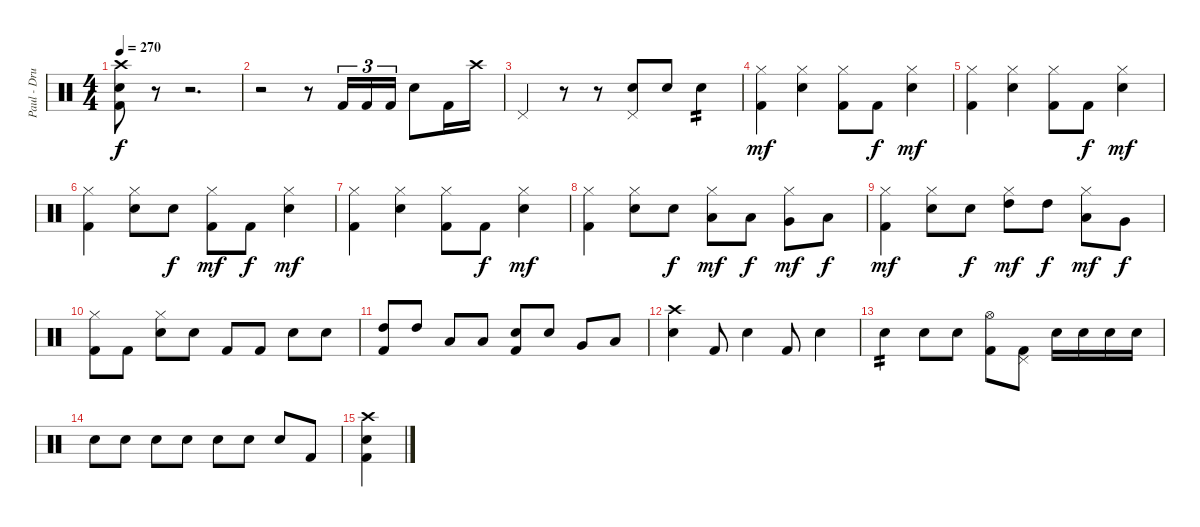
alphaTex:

\track ("Paul - Drums" "Paul - Dru") {instrument percussion}
\staff {score}
\articulation defaults
\ts (4 4)
\tempo 270
\clef neutral
\ks c
("Crash high (hit)" "Electric Snare (hit)" "Kick (hit) 2").8{dy f} r.8 r.2{d} |
r.2 r.8 "Kick (hit) 2".16{tu (3 2)} "Kick (hit) 2".16{tu (3 2)} "Kick (hit) 2".16{tu (3 2)} "Electric Snare (hit)".8 "Kick (hit) 2".16 "Crash high (hit)".16 |
"Pedal Hi-Hat (hit)".4 r.8 r.8 ("Pedal Hi-Hat (hit)" "Electric Snare (hit)").8 "Electric Snare (hit)".8 "Electric Snare (hit)".4{tp 2} |
("Hi-Hat (closed)" "Kick (hit) 2").4{dy mf} ("Hi-Hat (closed)" "Electric Snare (hit)").4 ("Hi-Hat (closed)" "Kick (hit) 2").8 "Kick (hit) 2".8{dy f} ("Hi-Hat (closed)" "Electric Snare (hit)").4{dy mf} |
("Hi-Hat (closed)" "Kick (hit) 2").4 ("Hi-Hat (closed)" "Electric Snare (hit)").4 ("Hi-Hat (closed)" "Kick (hit) 2").8 "Kick (hit) 2".8{dy f} ("Hi-Hat (closed)" "Electric Snare (hit)").4{dy mf} |
("Hi-Hat (closed)" "Kick (hit) 2").4 ("Hi-Hat (closed)" "Electric Snare (hit)").8 "Electric Snare (hit)".8{dy f} ("Hi-Hat (closed)" "Kick (hit) 2").8{dy mf} "Kick (hit) 2".8{dy f} ("Hi-Hat (closed)" "Electric Snare (hit)").4{dy mf} |
("Hi-Hat (closed)" "Kick (hit) 2").4 ("Hi-Hat (closed)" "Electric Snare (hit)").4 ("Hi-Hat (closed)" "Kick (hit) 2").8 "Kick (hit) 2".8{dy f} ("Hi-Hat (closed)" "Electric Snare (hit)").4{dy mf} |
("Hi-Hat (closed)" "Kick (hit) 2").4 ("Hi-Hat (closed)" "Electric Snare (hit)").8 "Electric Snare (hit)".8{dy f} ("Hi-Hat (closed)" "Low Tom (hit)").8{dy mf} "Low Tom (hit)".8{dy f} ("Hi-Hat (closed)" "Very Low Tom (hit)").8{dy mf} "Low Floor Tom (hit)".8{dy f} |
("Hi-Hat (closed)" "Kick (hit) 2").4{dy mf} ("Hi-Hat (closed)" "Electric Snare (hit)").8 "Electric Snare (hit)".8{dy f} ("Hi-Hat (closed)" "High Tom (hit)").8{dy mf} "High Tom (hit)".8{dy f} ("Hi-Hat (closed)" "Low Tom (hit)").8{dy mf} "Very Low Tom (hit)".8{dy f} |
("Hi-Hat (closed)" "Kick (hit) 2").8 "Kick (hit) 2".8 ("Hi-Hat (closed)" "Electric Snare (hit)").8 "Electric Snare (hit)".8 "Kick (hit) 2".8 "Kick (hit) 2".8 "Electric Snare (hit)".8 "Electric Snare (hit)".8 |
("High Tom (hit)" "Kick (hit) 2").8 "High Tom (hit)".8 "Low Tom (hit)".8 "Low Tom (hit)".8 ("Electric Snare (hit)" "Kick (hit) 2").8 "Electric Snare (hit)".8 "Very Low Tom (hit)".8 "Low Floor Tom (hit)".8 |
("Crash high (hit)" "Electric Snare (hit)").4 "Kick (hit) 2".8 "Electric Snare (hit)".4 "Kick (hit) 2".8 "Electric Snare (hit)".4 |
"Electric Snare (hit)".4{tp 2} "Electric Snare (hit)".8 "Electric Snare (hit)".8 ("Hi-Hat (open)" "Kick (hit) 2").8 ("Pedal Hi-Hat (hit)" "Kick (hit) 2").8 "Electric Snare (hit)".16 "Electric Snare (hit)".16 "Electric Snare (hit)".16 "Electric Snare (hit)".16 |
"Electric Snare (hit)".8 "Electric Snare (hit)".8 "Electric Snare (hit)".8 "Electric Snare (hit)".8 "Electric Snare (hit)".8 "Electric Snare (hit)".8 "Electric Snare (hit)".8 "Kick (hit) 2".8 |
("Crash high (hit)" "Electric Snare (hit)" "Kick (hit) 2").4
